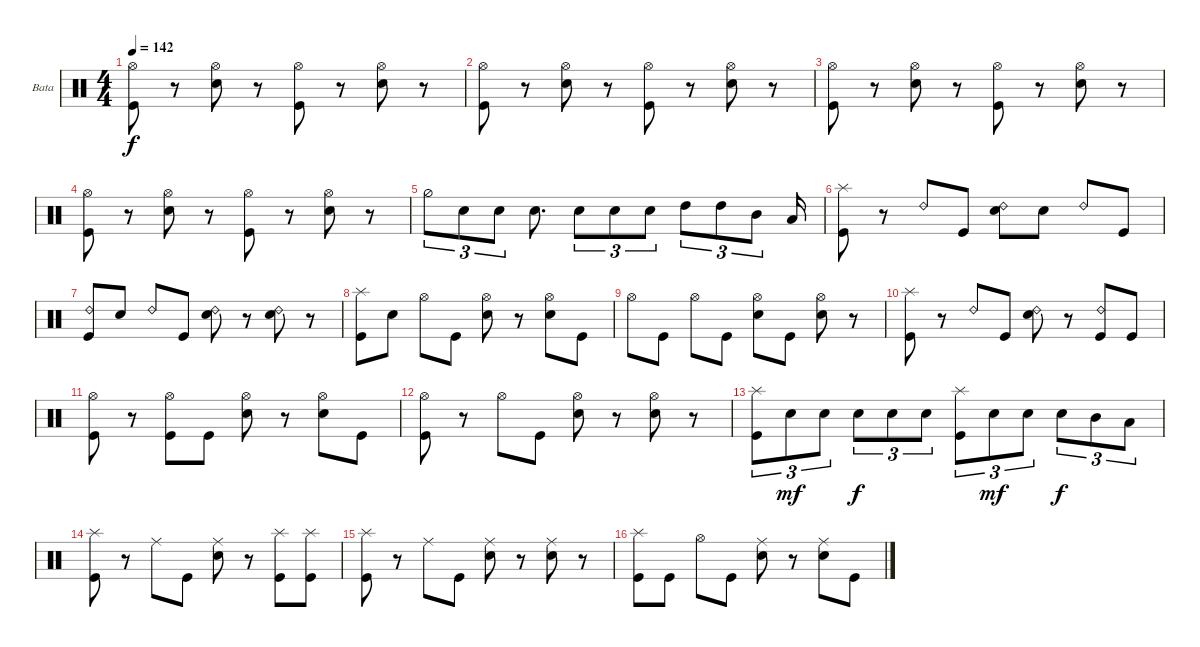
\bracketExtendMode groupsimilarinstruments
\firstSystemTrackNameOrientation horizontal
\otherSystemsTrackNameOrientation horizontal
\track ("Bateria" "Bata") {instrument percussion}
\staff {score}
\articulation defaults
\ts (4 4)
\tempo 142
\clef neutral
\ks c
("Kick (hit)" "Hi-Hat (open)").8{dy f} r.8 ("Hi-Hat (open)" "Snare (hit) 2").8 r.8 ("Hi-Hat (open)" "Kick (hit)").8 r.8 ("Hi-Hat (open)" "Snare (hit) 2").8 r.8 |
("Kick (hit)" "Hi-Hat (open)").8 r.8 ("Hi-Hat (open)" "Snare (hit) 2").8 r.8 ("Hi-Hat (open)" "Kick (hit)").8 r.8 ("Hi-Hat (open)" "Snare (hit) 2").8 r.8 |
("Kick (hit)" "Hi-Hat (open)").8 r.8 ("Hi-Hat (open)" "Snare (hit) 2").8 r.8 ("Hi-Hat (open)" "Kick (hit)").8 r.8 ("Hi-Hat (open)" "Snare (hit) 2").8 r.8 |
("Kick (hit)" "Hi-Hat (open)").8 r.8 ("Hi-Hat (open)" "Snare (hit) 2").8 r.8 ("Hi-Hat (open)" "Kick (hit)").8 r.8 ("Hi-Hat (open)" "Snare (hit) 2").8 r.8 |
"Hi-Hat (half)".8{tu (3 2)} "Snare (hit) 2".8{tu (3 2)} "Snare (hit) 2".8{tu (3 2)} "Snare (hit) 2".8{d} "Snare (hit) 2".8{tu (3 2)} "Snare (hit) 2".8{tu (3 2)} "Snare (hit) 2".8{tu (3 2)} "High Tom (hit)".8{tu (3 2)} "High Tom (hit)".8{tu (3 2)} "Mid Tom (hit)".8{tu (3 2)} "Low Tom (hit)".16 |
("Kick (hit)" "Splash (hit)").8 r.8 "Ride (bell) 2".8 "Kick (hit)".8 ("Ride (bell) 2" "Snare (hit) 2").8 "Snare (hit) 2".8 "Ride (bell) 2".8 "Kick (hit)".8 |
("Kick (hit)" "Ride (bell) 2").8 "Snare (hit) 2".8 "Ride (bell) 2".8 "Kick (hit)".8 ("Snare (hit) 2" "Ride (bell) 2").8 r.8 ("Snare (hit) 2" "Ride (bell) 2").8 r.8 |
("Kick (hit)" "Splash (hit)").8 "Snare (hit) 2".8 "Hi-Hat (open)".8 "Kick (hit)".8 ("Snare (hit) 2" "Hi-Hat (open)").8 r.8 ("Snare (hit) 2" "Hi-Hat (open)").8 "Kick (hit)".8 |
"Hi-Hat (open)".8 "Kick (hit)".8 "Hi-Hat (open)".8 "Kick (hit)".8 ("Hi-Hat (open)" "Snare (hit) 2").8 "Kick (hit)".8 ("Hi-Hat (open)" "Snare (hit) 2").8 r.8 |
("Kick (hit)" "Splash (hit)").8 r.8 "Ride (bell) 2".8 "Kick (hit)".8 ("Ride (bell) 2" "Snare (hit) 2").8 r.8 ("Ride (bell) 2" "Kick (hit)").8 "Kick (hit)".8 |
("Kick (hit)" "Hi-Hat (open)").8 r.8 ("Hi-Hat (open)" "Kick (hit)").8 "Kick (hit)".8 ("Hi-Hat (open)" "Snare (hit) 2").8 r.8 ("Hi-Hat (open)" "Snare (hit) 2").8 "Kick (hit)".8 |
("Kick (hit)" "Hi-Hat (open)").8 r.8 "Hi-Hat (open)".8 "Kick (hit)".8 ("Snare (hit) 2" "Hi-Hat (open)").8 r.8 ("Hi-Hat (open)" "Snare (hit) 2").8 r.8 |
("Kick (hit)" "Splash (hit)").8{tu (3 2)} "Snare (hit) 2".8{tu (3 2) dy mf} "Snare (hit) 2".8{tu (3 2)} "Snare (hit) 2".8{tu (3 2) dy f} "Snare (hit) 2".8{tu (3 2)} "Snare (hit) 2".8{tu (3 2)} ("Kick (hit)" "Splash (hit)").8{tu (3 2)} "Snare (hit) 2".8{tu (3 2) dy mf} "Snare (hit) 2".8{tu (3 2)} "Snare (hit) 2".8{tu (3 2) dy f} "Mid Tom (hit)".8{tu (3 2)} "Low Tom (hit)".8{tu (3 2)} |
("Kick (hit)" "Splash (hit)").8 r.8 "Ride (middle)".8 "Kick (hit)".8 ("Snare (hit) 2" "Ride (middle)").8 r.8 ("Kick (hit)" "Splash (hit)").8 ("Kick (hit)" "Splash (hit)").8 |
("Kick (hit)" "Splash (hit)").8 r.8 "Ride (middle)".8 "Kick (hit)".8 ("Snare (hit) 2" "Ride (middle)").8 r.8 ("Snare (hit) 2" "Ride (middle)").8 r.8 |
("Kick (hit)" "Splash (hit)").8 "Kick (hit)".8 "Hi-Hat (open)".8 "Kick (hit)".8 ("Ride (middle)" "Snare (hit) 2").8 r.8 ("Ride (middle)" "Snare (hit) 2").8 "Kick (hit)".8
